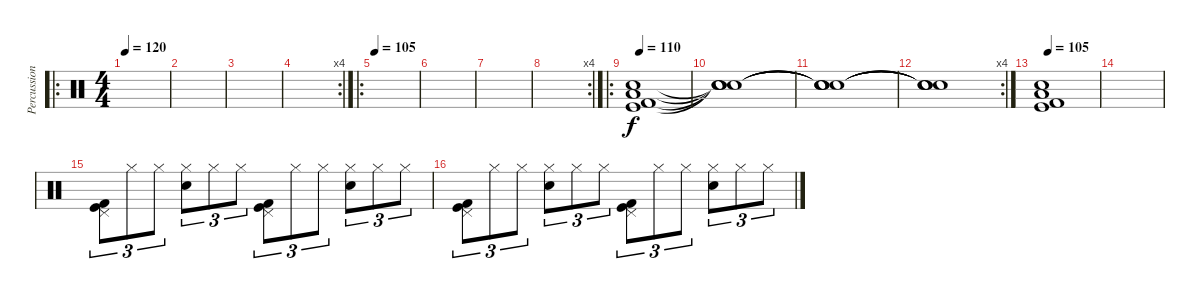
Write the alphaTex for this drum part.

\track ("Percussion" "Percussion") {instrument percussion}
\staff {score}
\articulation defaults
\ro
\ts (4 4)
\tempo 120
\tempo 95
\tempo 120
\clef neutral
\ks c
|
|
|
\rc 4
|
\ro
\tempo 105
|
|
|
\rc 4
|
\ro
\tempo 110
("Snare (hit) 2" "Low Floor Tom (hit)" "Kick (hit)" "Kick (hit) 2").1 |
("Snare (hit)"{t} "Snare (hit)"{t} "Snare (hit)"{t} "Snare (hit)"{t}).1 |
("Snare (hit)"{t} "Snare (hit)"{t} "Snare (hit)"{t} "Snare (hit)"{t}).1 |
\rc 4
("Snare (hit)"{t} "Snare (hit)"{t} "Snare (hit)"{t} "Snare (hit)"{t}).1 |
\tempo 105
("Snare (hit) 2" "Low Floor Tom (hit)" "Kick (hit)" "Kick (hit) 2").1 |
|
("Pedal Hi-Hat (hit)" "Kick (hit)" "Kick (hit) 2").8{tu (3 2)} "Hi-Hat (closed)".8{tu (3 2)} "Hi-Hat (closed)".8{tu (3 2)} ("Hi-Hat (closed)" "Snare (hit) 2").8{tu (3 2)} "Hi-Hat (closed)".8{tu (3 2)} "Hi-Hat (closed)".8{tu (3 2)} ("Pedal Hi-Hat (hit)" "Kick (hit)" "Kick (hit) 2").8{tu (3 2)} "Hi-Hat (closed)".8{tu (3 2)} "Hi-Hat (closed)".8{tu (3 2)} ("Hi-Hat (closed)" "Snare (hit) 2").8{tu (3 2)} "Hi-Hat (closed)".8{tu (3 2)} "Hi-Hat (closed)".8{tu (3 2)} |
("Pedal Hi-Hat (hit)" "Kick (hit)" "Kick (hit) 2").8{tu (3 2)} "Hi-Hat (closed)".8{tu (3 2)} "Hi-Hat (closed)".8{tu (3 2)} ("Hi-Hat (closed)" "Snare (hit) 2").8{tu (3 2)} "Hi-Hat (closed)".8{tu (3 2)} "Hi-Hat (closed)".8{tu (3 2)} ("Pedal Hi-Hat (hit)" "Kick (hit)" "Kick (hit) 2").8{tu (3 2)} "Hi-Hat (closed)".8{tu (3 2)} "Hi-Hat (closed)".8{tu (3 2)} ("Hi-Hat (closed)" "Snare (hit) 2").8{tu (3 2)} "Hi-Hat (closed)".8{tu (3 2)} "Hi-Hat (closed)".8{tu (3 2)}
